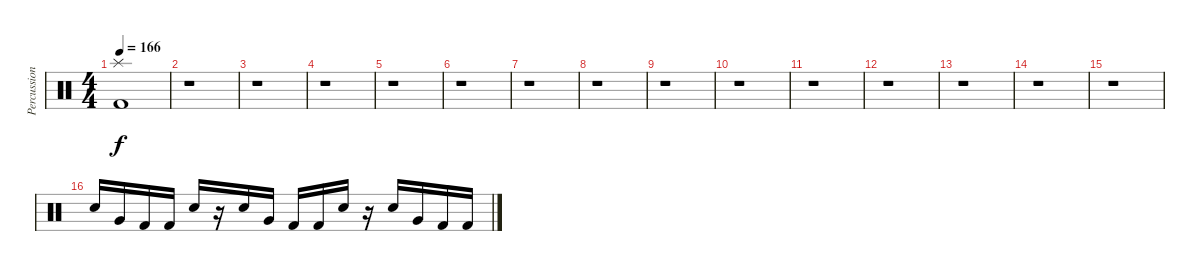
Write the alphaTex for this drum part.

\track ("Percussion" "Percussion") {instrument percussion}
\staff {score}
\articulation defaults
\ts (4 4)
\tempo 166
\clef neutral
\ks c
("Splash (hit)" "Kick (hit) 2").1{dy f} |
r.1 |
r.1 |
r.1 |
r.1 |
r.1 |
r.1 |
r.1 |
r.1 |
r.1 |
r.1 |
r.1 |
r.1 |
r.1 |
r.1 |
"Electric Snare (hit)".16 "Very Low Tom (hit)".16 "Kick (hit) 2".16 "Kick (hit) 2".16 "Electric Snare (hit)".16 r.16 "Electric Snare (hit)".16 "Very Low Tom (hit)".16 "Kick (hit) 2".16 "Kick (hit) 2".16 "Electric Snare (hit)".16 r.16 "Electric Snare (hit)".16 "Very Low Tom (hit)".16 "Kick (hit) 2".16 "Kick (hit) 2".16
